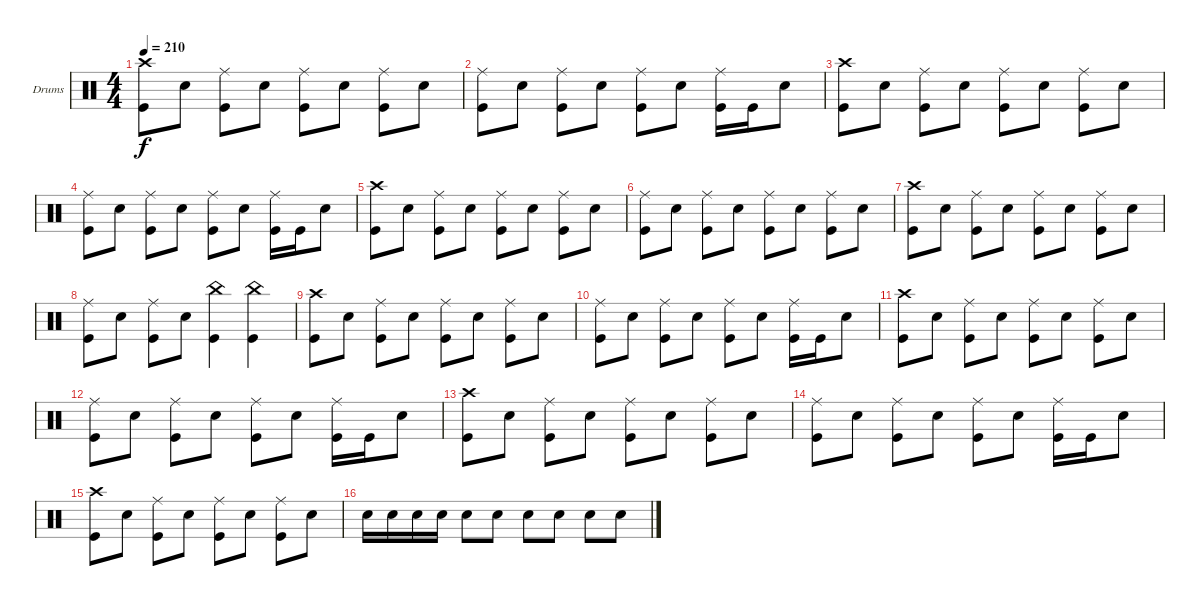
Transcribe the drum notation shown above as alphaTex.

\defaultSystemsLayout 4
\bracketExtendMode groupsimilarinstruments
\firstSystemTrackNameOrientation horizontal
\otherSystemsTrackNameOrientation horizontal
\track ("Markus Freiwald" "Drums") {instrument percussion}
\staff {score}
\articulation defaults
\ts (4 4)
\tempo 210
\clef neutral
\scale
0.5
\ks c
("Crash high (hit)" "Kick (hit)").8{dy f} "Snare (hit) 2".8 ("Ride (middle)" "Kick (hit)").8 "Snare (hit) 2".8 ("Ride (middle)" "Kick (hit)").8 "Snare (hit) 2".8 ("Ride (middle)" "Kick (hit)").8 "Snare (hit) 2".8 |
\scale
0.5 ("Ride (middle)" "Kick (hit)").8 "Snare (hit) 2".8 ("Ride (middle)" "Kick (hit)").8 "Snare (hit) 2".8 ("Ride (middle)" "Kick (hit)").8 "Snare (hit) 2".8 ("Ride (middle)" "Kick (hit)").16 "Kick (hit)".16 "Snare (hit) 2".8 |
\scale
0.5 ("Crash high (hit)" "Kick (hit)").8 "Snare (hit) 2".8 ("Ride (middle)" "Kick (hit)").8 "Snare (hit) 2".8 ("Ride (middle)" "Kick (hit)").8 "Snare (hit) 2".8 ("Ride (middle)" "Kick (hit)").8 "Snare (hit) 2".8 |
\scale
0.5 ("Ride (middle)" "Kick (hit)").8 "Snare (hit) 2".8 ("Ride (middle)" "Kick (hit)").8 "Snare (hit) 2".8 ("Ride (middle)" "Kick (hit)").8 "Snare (hit) 2".8 ("Ride (middle)" "Kick (hit)").16 "Kick (hit)".16 "Snare (hit) 2".8 |
\scale
0.5 ("Crash high (hit)" "Kick (hit)").8 "Snare (hit) 2".8 ("Ride (middle)" "Kick (hit)").8 "Snare (hit) 2".8 ("Ride (middle)" "Kick (hit)").8 "Snare (hit) 2".8 ("Ride (middle)" "Kick (hit)").8 "Snare (hit) 2".8 |
\scale
0.5 ("Ride (middle)" "Kick (hit)").8 "Snare (hit) 2".8 ("Ride (middle)" "Kick (hit)").8 "Snare (hit) 2".8 ("Ride (middle)" "Kick (hit)").8 "Snare (hit) 2".8 ("Kick (hit)" "Ride (middle)").8 "Snare (hit) 2".8 |
\scale
0.5 ("Crash high (hit)" "Kick (hit)").8 "Snare (hit) 2".8 ("Ride (middle)" "Kick (hit)").8 "Snare (hit) 2".8 ("Ride (middle)" "Kick (hit)").8 "Snare (hit) 2".8 ("Ride (middle)" "Kick (hit)").8 "Snare (hit) 2".8 |
\scale
0.5 ("Ride (middle)" "Kick (hit)").8 "Snare (hit) 2".8 ("Ride (middle)" "Kick (hit)").8 "Snare (hit) 2".8 ("Kick (hit)" "China (hit)").4 ("China (hit)" "Kick (hit)").4 |
\scale
0.5 ("Crash high (hit)" "Kick (hit)").8 "Snare (hit) 2".8 ("Ride (middle)" "Kick (hit)").8 "Snare (hit) 2".8 ("Ride (middle)" "Kick (hit)").8 "Snare (hit) 2".8 ("Ride (middle)" "Kick (hit)").8 "Snare (hit) 2".8 |
\scale
0.5 ("Ride (middle)" "Kick (hit)").8 "Snare (hit) 2".8 ("Ride (middle)" "Kick (hit)").8 "Snare (hit) 2".8 ("Ride (middle)" "Kick (hit)").8 "Snare (hit) 2".8 ("Ride (middle)" "Kick (hit)").16 "Kick (hit)".16 "Snare (hit) 2".8 |
\scale
0.5 ("Crash high (hit)" "Kick (hit)").8 "Snare (hit) 2".8 ("Ride (middle)" "Kick (hit)").8 "Snare (hit) 2".8 ("Ride (middle)" "Kick (hit)").8 "Snare (hit) 2".8 ("Ride (middle)" "Kick (hit)").8 "Snare (hit) 2".8 |
\scale
0.5 ("Ride (middle)" "Kick (hit)").8 "Snare (hit) 2".8 ("Ride (middle)" "Kick (hit)").8 "Snare (hit) 2".8 ("Ride (middle)" "Kick (hit)").8 "Snare (hit) 2".8 ("Ride (middle)" "Kick (hit)").16 "Kick (hit)".16 "Snare (hit) 2".8 |
\scale
0.5 ("Crash high (hit)" "Kick (hit)").8 "Snare (hit) 2".8 ("Ride (middle)" "Kick (hit)").8 "Snare (hit) 2".8 ("Ride (middle)" "Kick (hit)").8 "Snare (hit) 2".8 ("Ride (middle)" "Kick (hit)").8 "Snare (hit) 2".8 |
\scale
0.5 ("Ride (middle)" "Kick (hit)").8 "Snare (hit) 2".8 ("Ride (middle)" "Kick (hit)").8 "Snare (hit) 2".8 ("Ride (middle)" "Kick (hit)").8 "Snare (hit) 2".8 ("Ride (middle)" "Kick (hit)").16 "Kick (hit)".16 "Snare (hit) 2".8 |
\scale
0.5 ("Crash high (hit)" "Kick (hit)").8 "Snare (hit) 2".8 ("Ride (middle)" "Kick (hit)").8 "Snare (hit) 2".8 ("Ride (middle)" "Kick (hit)").8 "Snare (hit) 2".8 ("Ride (middle)" "Kick (hit)").8 "Snare (hit) 2".8 |
\scale
0.5 "Snare (hit) 2".16 "Snare (hit) 2".16 "Snare (hit) 2".16 "Snare (hit) 2".16 "Snare (hit) 2".8 "Snare (hit) 2".8 "Snare (hit) 2".8 "Snare (hit) 2".8 "Snare (hit) 2".8 "Snare (hit) 2".8
